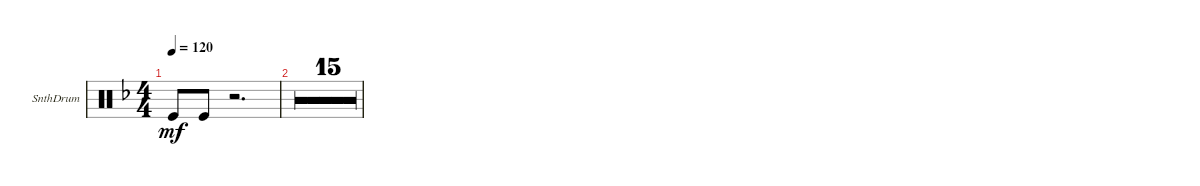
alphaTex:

\defaultSystemsLayout 4
\bracketExtendMode groupsimilarinstruments
\multiBarRest
\firstSystemTrackNameOrientation horizontal
\otherSystemsTrackNameOrientation horizontal
\track ("Synth Drum" "SnthDrum") {multiBarRest instrument percussion}
\staff {score}
\articulation defaults
\ts (4 4)
\tempo 120
\clef neutral
\ks dminor "Kick (hit)".8{dy mf} "Kick (hit)".8
r.2{d} |
r.1 |
r.1 |
r.1 |
r.1 |
r.1 |
r.1 |
r.1 |
r.1 |
r.1 |
r.1 |
r.1 |
r.1 |
r.1 |
r.1 |
r.1
